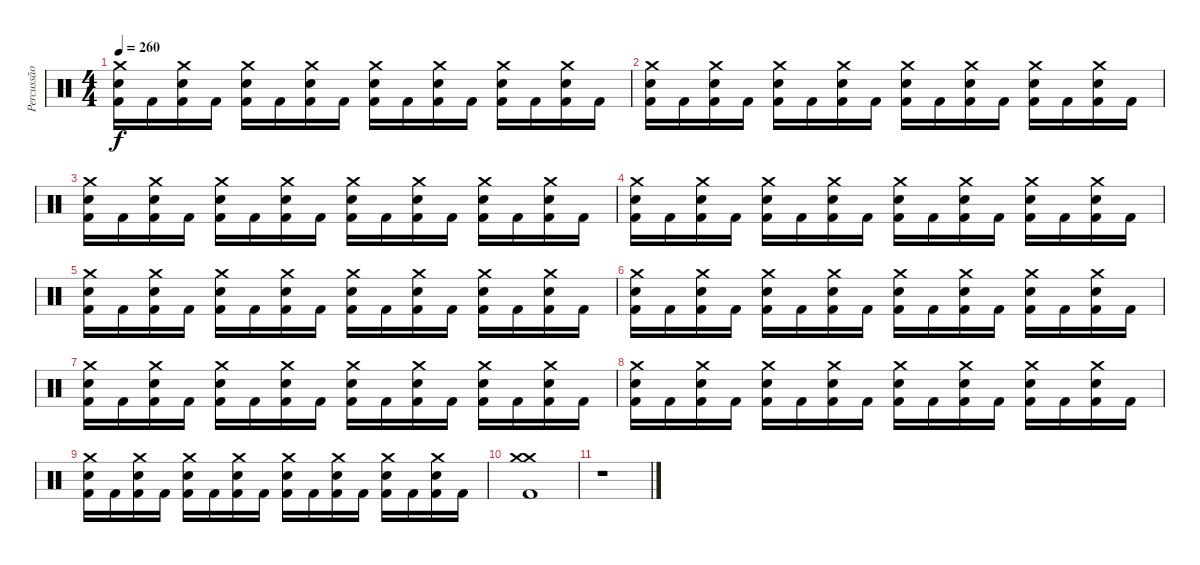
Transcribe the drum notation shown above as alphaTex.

\track ("Percussão" "Percussão") {instrument percussion}
\staff {score}
\articulation defaults
\ts (4 4)
\tempo 260
\clef neutral
\ks c
("Crash medium (hit)" "Snare (hit) 2" "Kick (hit) 2").16{dy f} "Kick (hit) 2".16 ("Crash medium (hit)" "Snare (hit) 2" "Kick (hit) 2").16 "Kick (hit) 2".16 ("Crash medium (hit)" "Snare (hit) 2" "Kick (hit) 2").16 "Kick (hit) 2".16 ("Crash medium (hit)" "Snare (hit) 2" "Kick (hit) 2").16 "Kick (hit) 2".16 ("Crash medium (hit)" "Snare (hit) 2" "Kick (hit) 2").16 "Kick (hit) 2".16 ("Crash medium (hit)" "Snare (hit) 2" "Kick (hit) 2").16 "Kick (hit) 2".16 ("Crash medium (hit)" "Snare (hit) 2" "Kick (hit) 2").16 "Kick (hit) 2".16 ("Crash medium (hit)" "Snare (hit) 2" "Kick (hit) 2").16 "Kick (hit) 2".16 |
("Crash medium (hit)" "Snare (hit) 2" "Kick (hit) 2").16 "Kick (hit) 2".16 ("Crash medium (hit)" "Snare (hit) 2" "Kick (hit) 2").16 "Kick (hit) 2".16 ("Crash medium (hit)" "Snare (hit) 2" "Kick (hit) 2").16 "Kick (hit) 2".16 ("Crash medium (hit)" "Snare (hit) 2" "Kick (hit) 2").16 "Kick (hit) 2".16 ("Crash medium (hit)" "Snare (hit) 2" "Kick (hit) 2").16 "Kick (hit) 2".16 ("Crash medium (hit)" "Snare (hit) 2" "Kick (hit) 2").16 "Kick (hit) 2".16 ("Crash medium (hit)" "Snare (hit) 2" "Kick (hit) 2").16 "Kick (hit) 2".16 ("Crash medium (hit)" "Snare (hit) 2" "Kick (hit) 2").16 "Kick (hit) 2".16 |
("Crash medium (hit)" "Snare (hit) 2" "Kick (hit) 2").16 "Kick (hit) 2".16 ("Crash medium (hit)" "Snare (hit) 2" "Kick (hit) 2").16 "Kick (hit) 2".16 ("Crash medium (hit)" "Snare (hit) 2" "Kick (hit) 2").16 "Kick (hit) 2".16 ("Crash medium (hit)" "Snare (hit) 2" "Kick (hit) 2").16 "Kick (hit) 2".16 ("Crash medium (hit)" "Snare (hit) 2" "Kick (hit) 2").16 "Kick (hit) 2".16 ("Crash medium (hit)" "Snare (hit) 2" "Kick (hit) 2").16 "Kick (hit) 2".16 ("Crash medium (hit)" "Snare (hit) 2" "Kick (hit) 2").16 "Kick (hit) 2".16 ("Crash medium (hit)" "Snare (hit) 2" "Kick (hit) 2").16 "Kick (hit) 2".16 |
("Crash medium (hit)" "Snare (hit) 2" "Kick (hit) 2").16 "Kick (hit) 2".16 ("Crash medium (hit)" "Snare (hit) 2" "Kick (hit) 2").16 "Kick (hit) 2".16 ("Crash medium (hit)" "Snare (hit) 2" "Kick (hit) 2").16 "Kick (hit) 2".16 ("Crash medium (hit)" "Snare (hit) 2" "Kick (hit) 2").16 "Kick (hit) 2".16 ("Crash medium (hit)" "Snare (hit) 2" "Kick (hit) 2").16 "Kick (hit) 2".16 ("Crash medium (hit)" "Snare (hit) 2" "Kick (hit) 2").16 "Kick (hit) 2".16 ("Crash medium (hit)" "Snare (hit) 2" "Kick (hit) 2").16 "Kick (hit) 2".16 ("Crash medium (hit)" "Snare (hit) 2" "Kick (hit) 2").16 "Kick (hit) 2".16 |
("Crash medium (hit)" "Snare (hit) 2" "Kick (hit) 2").16 "Kick (hit) 2".16 ("Crash medium (hit)" "Snare (hit) 2" "Kick (hit) 2").16 "Kick (hit) 2".16 ("Crash medium (hit)" "Snare (hit) 2" "Kick (hit) 2").16 "Kick (hit) 2".16 ("Crash medium (hit)" "Snare (hit) 2" "Kick (hit) 2").16 "Kick (hit) 2".16 ("Crash medium (hit)" "Snare (hit) 2" "Kick (hit) 2").16 "Kick (hit) 2".16 ("Crash medium (hit)" "Snare (hit) 2" "Kick (hit) 2").16 "Kick (hit) 2".16 ("Crash medium (hit)" "Snare (hit) 2" "Kick (hit) 2").16 "Kick (hit) 2".16 ("Crash medium (hit)" "Snare (hit) 2" "Kick (hit) 2").16 "Kick (hit) 2".16 |
("Crash medium (hit)" "Snare (hit) 2" "Kick (hit) 2").16 "Kick (hit) 2".16 ("Crash medium (hit)" "Snare (hit) 2" "Kick (hit) 2").16 "Kick (hit) 2".16 ("Crash medium (hit)" "Snare (hit) 2" "Kick (hit) 2").16 "Kick (hit) 2".16 ("Crash medium (hit)" "Snare (hit) 2" "Kick (hit) 2").16 "Kick (hit) 2".16 ("Crash medium (hit)" "Snare (hit) 2" "Kick (hit) 2").16 "Kick (hit) 2".16 ("Crash medium (hit)" "Snare (hit) 2" "Kick (hit) 2").16 "Kick (hit) 2".16 ("Crash medium (hit)" "Snare (hit) 2" "Kick (hit) 2").16 "Kick (hit) 2".16 ("Crash medium (hit)" "Snare (hit) 2" "Kick (hit) 2").16 "Kick (hit) 2".16 |
("Crash medium (hit)" "Snare (hit) 2" "Kick (hit) 2").16 "Kick (hit) 2".16 ("Crash medium (hit)" "Snare (hit) 2" "Kick (hit) 2").16 "Kick (hit) 2".16 ("Crash medium (hit)" "Snare (hit) 2" "Kick (hit) 2").16 "Kick (hit) 2".16 ("Crash medium (hit)" "Snare (hit) 2" "Kick (hit) 2").16 "Kick (hit) 2".16 ("Crash medium (hit)" "Snare (hit) 2" "Kick (hit) 2").16 "Kick (hit) 2".16 ("Crash medium (hit)" "Snare (hit) 2" "Kick (hit) 2").16 "Kick (hit) 2".16 ("Crash medium (hit)" "Snare (hit) 2" "Kick (hit) 2").16 "Kick (hit) 2".16 ("Crash medium (hit)" "Snare (hit) 2" "Kick (hit) 2").16 "Kick (hit) 2".16 |
("Crash medium (hit)" "Snare (hit) 2" "Kick (hit) 2").16 "Kick (hit) 2".16 ("Crash medium (hit)" "Snare (hit) 2" "Kick (hit) 2").16 "Kick (hit) 2".16 ("Crash medium (hit)" "Snare (hit) 2" "Kick (hit) 2").16 "Kick (hit) 2".16 ("Crash medium (hit)" "Snare (hit) 2" "Kick (hit) 2").16 "Kick (hit) 2".16 ("Crash medium (hit)" "Snare (hit) 2" "Kick (hit) 2").16 "Kick (hit) 2".16 ("Crash medium (hit)" "Snare (hit) 2" "Kick (hit) 2").16 "Kick (hit) 2".16 ("Crash medium (hit)" "Snare (hit) 2" "Kick (hit) 2").16 "Kick (hit) 2".16 ("Crash medium (hit)" "Snare (hit) 2" "Kick (hit) 2").16 "Kick (hit) 2".16 |
("Crash medium (hit)" "Snare (hit) 2" "Kick (hit) 2").16 "Kick (hit) 2".16 ("Crash medium (hit)" "Snare (hit) 2" "Kick (hit) 2").16 "Kick (hit) 2".16 ("Crash medium (hit)" "Snare (hit) 2" "Kick (hit) 2").16 "Kick (hit) 2".16 ("Crash medium (hit)" "Snare (hit) 2" "Kick (hit) 2").16 "Kick (hit) 2".16 ("Crash medium (hit)" "Snare (hit) 2" "Kick (hit) 2").16 "Kick (hit) 2".16 ("Crash medium (hit)" "Snare (hit) 2" "Kick (hit) 2").16 "Kick (hit) 2".16 ("Crash medium (hit)" "Snare (hit) 2" "Kick (hit) 2").16 "Kick (hit) 2".16 ("Crash medium (hit)" "Snare (hit) 2" "Kick (hit) 2").16 "Kick (hit) 2".16 |
("Crash medium (hit)" "Crash medium (hit)" "Kick (hit) 2").1 |
r.1
